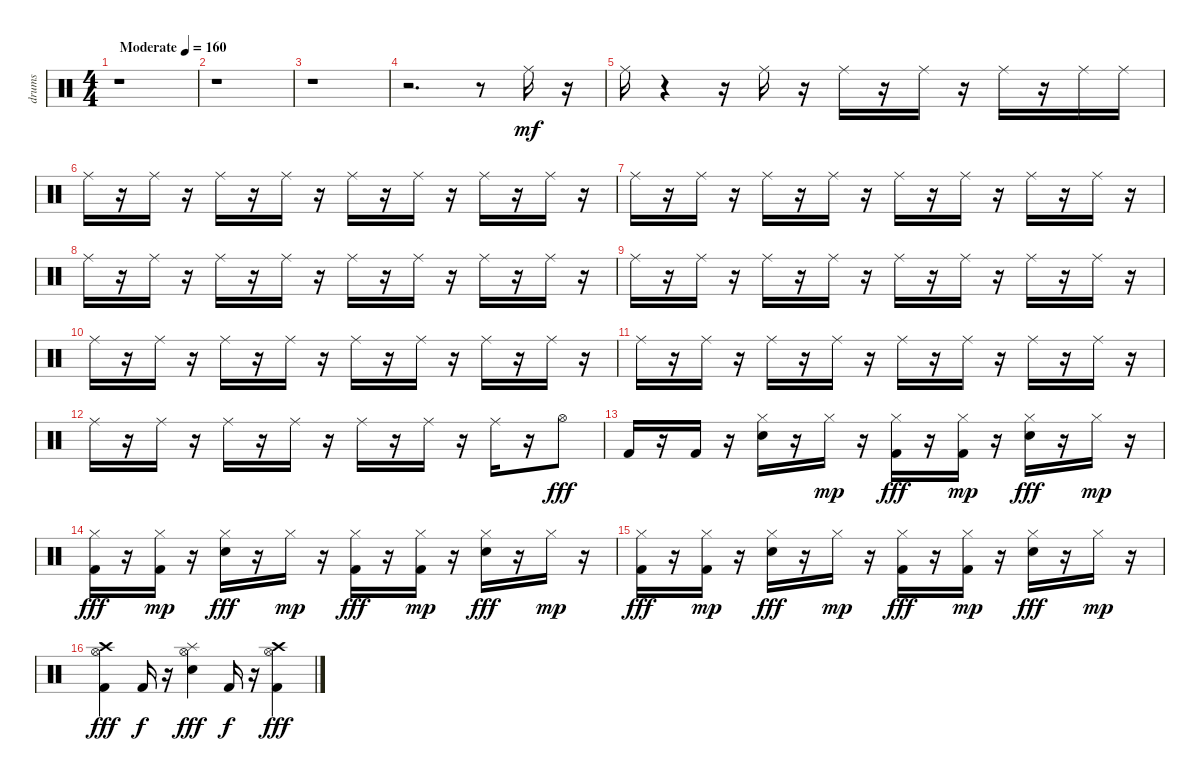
\track ("drums" "drums") {instrument percussion}
\staff {score}
\articulation defaults
\ts (4 4)
\tempo (160 "Moderate")
\clef neutral
\ks c
r.1{dy mf} |
r.1 |
r.1 |
r.2{d} r.8 "Ride (middle)".16 r.16 |
"Ride (middle)".16 r.4 r.16 "Ride (middle)".16 r.16 "Ride (middle)".16 r.16 "Ride (middle)".16 r.16 "Ride (middle)".16 r.16 "Ride (middle)".16 "Ride (middle)".16 |
"Ride (middle)".16 r.16 "Ride (middle)".16 r.16 "Ride (middle)".16 r.16 "Ride (middle)".16 r.16 "Ride (middle)".16 r.16 "Ride (middle)".16 r.16 "Ride (middle)".16 r.16 "Ride (middle)".16 r.16 |
"Ride (middle)".16 r.16 "Ride (middle)".16 r.16 "Ride (middle)".16 r.16 "Ride (middle)".16 r.16 "Ride (middle)".16 r.16 "Ride (middle)".16 r.16 "Ride (middle)".16 r.16 "Ride (middle)".16 r.16 |
"Ride (middle)".16 r.16 "Ride (middle)".16 r.16 "Ride (middle)".16 r.16 "Ride (middle)".16 r.16 "Ride (middle)".16 r.16 "Ride (middle)".16 r.16 "Ride (middle)".16 r.16 "Ride (middle)".16 r.16 |
"Ride (middle)".16 r.16 "Ride (middle)".16 r.16 "Ride (middle)".16 r.16 "Ride (middle)".16 r.16 "Ride (middle)".16 r.16 "Ride (middle)".16 r.16 "Ride (middle)".16 r.16 "Ride (middle)".16 r.16 |
"Ride (middle)".16 r.16 "Ride (middle)".16 r.16 "Ride (middle)".16 r.16 "Ride (middle)".16 r.16 "Ride (middle)".16 r.16 "Ride (middle)".16 r.16 "Ride (middle)".16 r.16 "Ride (middle)".16 r.16 |
"Ride (middle)".16 r.16 "Ride (middle)".16 r.16 "Ride (middle)".16 r.16 "Ride (middle)".16 r.16 "Ride (middle)".16 r.16 "Ride (middle)".16 r.16 "Ride (middle)".16 r.16 "Ride (middle)".16 r.16 |
"Ride (middle)".16 r.16 "Ride (middle)".16 r.16 "Ride (middle)".16 r.16 "Ride (middle)".16 r.16 "Ride (middle)".16 r.16 "Ride (middle)".16 r.16 "Ride (middle)".16 r.16 "Hi-Hat (open)".8{dy fff} |
"Kick (hit) 2".16 r.16 "Kick (hit) 2".16 r.16 ("Electric Snare (hit)" "Hi-Hat (closed)").16 r.16 "Hi-Hat (closed)".16{dy mp} r.16 ("Kick (hit) 2" "Hi-Hat (closed)").16{dy fff} r.16 ("Kick (hit) 2" "Hi-Hat (closed)").16{dy mp} r.16 ("Electric Snare (hit)" "Hi-Hat (closed)").16{dy fff} r.16 "Hi-Hat (closed)".16{dy mp} r.16 |
("Kick (hit) 2" "Hi-Hat (closed)").16{dy fff} r.16 ("Kick (hit) 2" "Hi-Hat (closed)").16{dy mp} r.16 ("Electric Snare (hit)" "Hi-Hat (closed)").16{dy fff} r.16 "Hi-Hat (closed)".16{dy mp} r.16 ("Hi-Hat (closed)" "Kick (hit) 2").16{dy fff} r.16 ("Kick (hit) 2" "Hi-Hat (closed)").16{dy mp} r.16 ("Electric Snare (hit)" "Hi-Hat (closed)").16{dy fff} r.16 "Hi-Hat (closed)".16{dy mp} r.16 |
("Kick (hit) 2" "Hi-Hat (closed)").16{dy fff} r.16 ("Kick (hit) 2" "Hi-Hat (closed)").16{dy mp} r.16 ("Electric Snare (hit)" "Hi-Hat (closed)").16{dy fff} r.16 "Hi-Hat (closed)".16{dy mp} r.16 ("Hi-Hat (closed)" "Kick (hit) 2").16{dy fff} r.16 ("Kick (hit) 2" "Hi-Hat (closed)").16{dy mp} r.16 ("Electric Snare (hit)" "Hi-Hat (closed)").16{dy fff} r.16 "Hi-Hat (closed)".16{dy mp} r.16 |
("Kick (hit) 2" "Hi-Hat (open)" "Crash high (hit)").4{dy fff} "Kick (hit) 2".16{dy f} r.16 ("Electric Snare (hit)" "Hi-Hat (open)" "Splash (hit)").4{dy fff} "Kick (hit) 2".16{dy f} r.16 ("Kick (hit) 2" "Hi-Hat (open)" "Crash high (hit)").4{dy fff}
